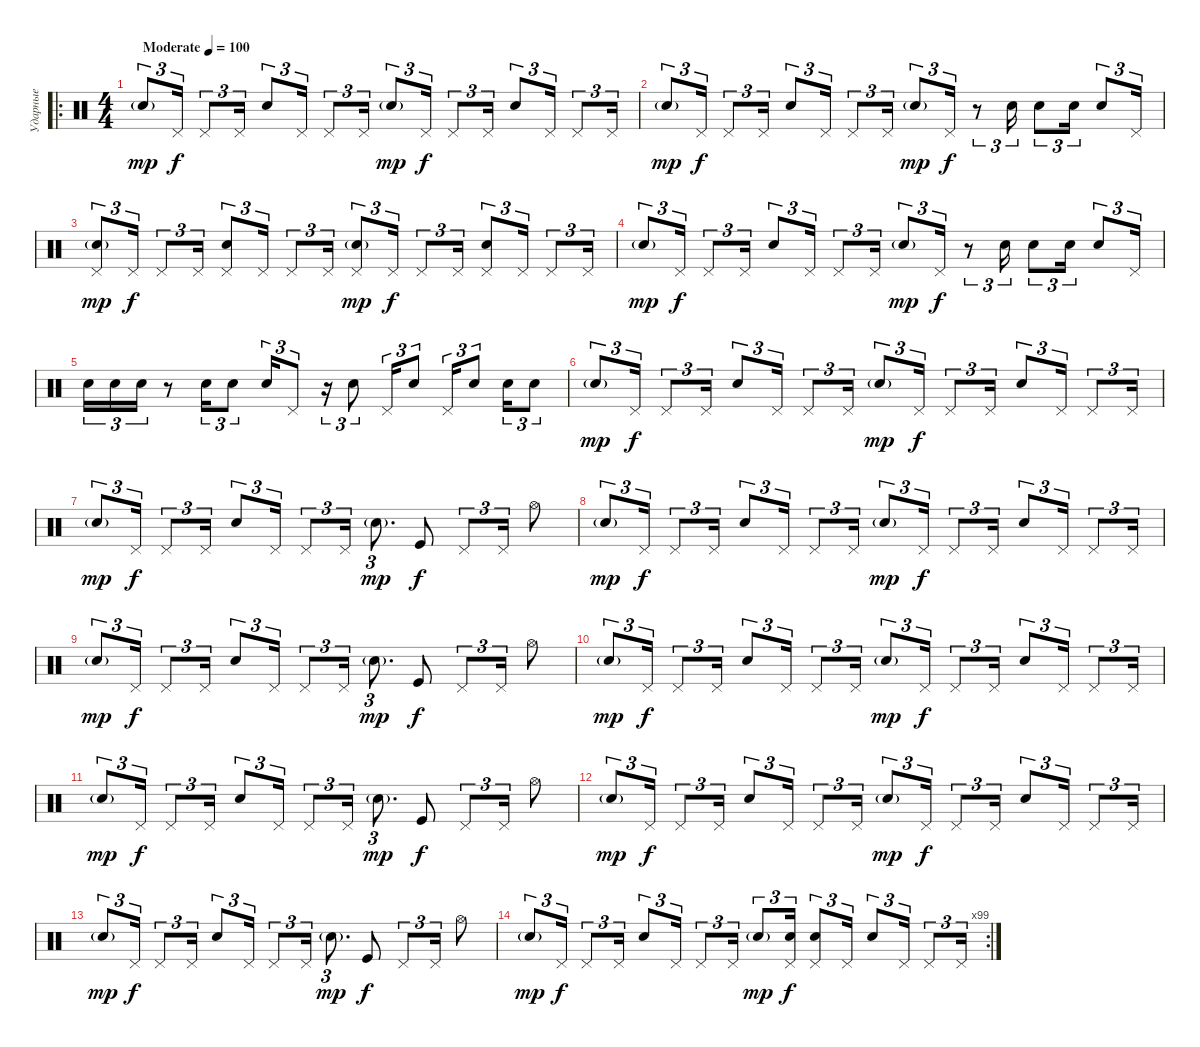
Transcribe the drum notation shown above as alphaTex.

\track ("Ударные" "Ударные") {instrument percussion}
\staff {score}
\articulation defaults
\ro
\ts (4 4)
\tempo (100 "Moderate")
\clef neutral
\ks c "Snare (hit) 2"{g}.8{tu (3 2) dy mp} "Pedal Hi-Hat (hit)".16{tu (3 2) dy f} "Pedal Hi-Hat (hit)".8{tu (3 2)} "Pedal Hi-Hat (hit)".16{tu (3 2)} "Hand Clap (hit)".8{tu (3 2)} "Pedal Hi-Hat (hit)".16{tu (3 2)} "Pedal Hi-Hat (hit)".8{tu (3 2)} "Pedal Hi-Hat (hit)".16{tu (3 2)} "Snare (hit) 2"{g}.8{tu (3 2) dy mp} "Pedal Hi-Hat (hit)".16{tu (3 2) dy f} "Pedal Hi-Hat (hit)".8{tu (3 2)} "Pedal Hi-Hat (hit)".16{tu (3 2)} "Hand Clap (hit)".8{tu (3 2)} "Pedal Hi-Hat (hit)".16{tu (3 2)} "Pedal Hi-Hat (hit)".8{tu (3 2)} "Pedal Hi-Hat (hit)".16{tu (3 2)}
|
"Electric Snare (hit)"{g}.8{tu (3 2) dy mp} "Pedal Hi-Hat (hit)".16{tu (3 2) dy f} "Pedal Hi-Hat (hit)".8{tu (3 2)} "Pedal Hi-Hat (hit)".16{tu (3 2)} "Hand Clap (hit)".8{tu (3 2)} "Pedal Hi-Hat (hit)".16{tu (3 2)} "Pedal Hi-Hat (hit)".8{tu (3 2)} "Pedal Hi-Hat (hit)".16{tu (3 2)} "Snare (hit) 2"{g}.8{tu (3 2) dy mp} "Pedal Hi-Hat (hit)".16{tu (3 2) dy f} r.8{tu (3 2)} "Hand Clap (hit)".16{tu (3 2)} "Hand Clap (hit)".8{tu (3 2)} "Hand Clap (hit)".16{tu (3 2)} "Hand Clap (hit)".8{tu (3 2)} "Pedal Hi-Hat (hit)".16{tu (3 2)} |
("Pedal Hi-Hat (hit)" "Snare (hit) 2"{g}).8{tu (3 2) dy mp} "Pedal Hi-Hat (hit)".16{tu (3 2) dy f} "Pedal Hi-Hat (hit)".8{tu (3 2)} "Pedal Hi-Hat (hit)".16{tu (3 2)} ("Pedal Hi-Hat (hit)" "Hand Clap (hit)").8{tu (3 2)} "Pedal Hi-Hat (hit)".16{tu (3 2)} "Pedal Hi-Hat (hit)".8{tu (3 2)} "Pedal Hi-Hat (hit)".16{tu (3 2)} ("Pedal Hi-Hat (hit)" "Snare (hit) 2"{g}).8{tu (3 2) dy mp} "Pedal Hi-Hat (hit)".16{tu (3 2) dy f} "Pedal Hi-Hat (hit)".8{tu (3 2)} "Pedal Hi-Hat (hit)".16{tu (3 2)} ("Pedal Hi-Hat (hit)" "Hand Clap (hit)").8{tu (3 2)} "Pedal Hi-Hat (hit)".16{tu (3 2)} "Pedal Hi-Hat (hit)".8{tu (3 2)} "Pedal Hi-Hat (hit)".16{tu (3 2)} |
"Electric Snare (hit)"{g}.8{tu (3 2) dy mp} "Pedal Hi-Hat (hit)".16{tu (3 2) dy f} "Pedal Hi-Hat (hit)".8{tu (3 2)} "Pedal Hi-Hat (hit)".16{tu (3 2)} "Hand Clap (hit)".8{tu (3 2)} "Pedal Hi-Hat (hit)".16{tu (3 2)} "Pedal Hi-Hat (hit)".8{tu (3 2)} "Pedal Hi-Hat (hit)".16{tu (3 2)} "Snare (hit) 2"{g}.8{tu (3 2) dy mp} "Pedal Hi-Hat (hit)".16{tu (3 2) dy f} r.8{tu (3 2)} "Hand Clap (hit)".16{tu (3 2)} "Hand Clap (hit)".8{tu (3 2)} "Hand Clap (hit)".16{tu (3 2)} "Hand Clap (hit)".8{tu (3 2)} "Pedal Hi-Hat (hit)".16{tu (3 2)} |
"Snare (hit) 2".16{tu (3 2)} "Snare (hit) 2".16{tu (3 2)} "Snare (hit) 2".16{tu (3 2)} r.8 "Hand Clap (hit)".16{tu (3 2)} "Hand Clap (hit)".8{tu (3 2)} "Hand Clap (hit)".16{tu (3 2)} "Pedal Hi-Hat (hit)".8{tu (3 2)} r.16{tu (3 2)} "Snare (hit) 2".8{tu (3 2)} "Pedal Hi-Hat (hit)".16{tu (3 2)} "Hand Clap (hit)".8{tu (3 2)} "Pedal Hi-Hat (hit)".16{tu (3 2)} "Snare (hit) 2".8{tu (3 2)} "Snare (hit) 2".16{tu (3 2)} "Hand Clap (hit)".8{tu (3 2)} |
"Snare (hit) 2"{g}.8{tu (3 2) dy mp} "Pedal Hi-Hat (hit)".16{tu (3 2) dy f} "Pedal Hi-Hat (hit)".8{tu (3 2)} "Pedal Hi-Hat (hit)".16{tu (3 2)} "Hand Clap (hit)".8{tu (3 2)} "Pedal Hi-Hat (hit)".16{tu (3 2)} "Pedal Hi-Hat (hit)".8{tu (3 2)} "Pedal Hi-Hat (hit)".16{tu (3 2)} "Snare (hit) 2"{g}.8{tu (3 2) dy mp} "Pedal Hi-Hat (hit)".16{tu (3 2) dy f} "Pedal Hi-Hat (hit)".8{tu (3 2)} "Pedal Hi-Hat (hit)".16{tu (3 2)} "Hand Clap (hit)".8{tu (3 2)} "Pedal Hi-Hat (hit)".16{tu (3 2)} "Pedal Hi-Hat (hit)".8{tu (3 2)} "Pedal Hi-Hat (hit)".16{tu (3 2)} |
"Snare (hit) 2"{g}.8{tu (3 2) dy mp} "Pedal Hi-Hat (hit)".16{tu (3 2) dy f} "Pedal Hi-Hat (hit)".8{tu (3 2)} "Pedal Hi-Hat (hit)".16{tu (3 2)} "Hand Clap (hit)".8{tu (3 2)} "Pedal Hi-Hat (hit)".16{tu (3 2)} "Pedal Hi-Hat (hit)".8{tu (3 2)} "Pedal Hi-Hat (hit)".16{tu (3 2)} "Snare (hit) 2"{g}.8{d tu (3 2) dy mp} "Kick (hit)".8{dy f} "Pedal Hi-Hat (hit)".8{tu (3 2)} "Pedal Hi-Hat (hit)".16{tu (3 2)} "Hi-Hat (open)".8 |
"Snare (hit) 2"{g}.8{tu (3 2) dy mp} "Pedal Hi-Hat (hit)".16{tu (3 2) dy f} "Pedal Hi-Hat (hit)".8{tu (3 2)} "Pedal Hi-Hat (hit)".16{tu (3 2)} "Hand Clap (hit)".8{tu (3 2)} "Pedal Hi-Hat (hit)".16{tu (3 2)} "Pedal Hi-Hat (hit)".8{tu (3 2)} "Pedal Hi-Hat (hit)".16{tu (3 2)} "Snare (hit) 2"{g}.8{tu (3 2) dy mp} "Pedal Hi-Hat (hit)".16{tu (3 2) dy f} "Pedal Hi-Hat (hit)".8{tu (3 2)} "Pedal Hi-Hat (hit)".16{tu (3 2)} "Hand Clap (hit)".8{tu (3 2)} "Pedal Hi-Hat (hit)".16{tu (3 2)} "Pedal Hi-Hat (hit)".8{tu (3 2)} "Pedal Hi-Hat (hit)".16{tu (3 2)} |
"Snare (hit) 2"{g}.8{tu (3 2) dy mp} "Pedal Hi-Hat (hit)".16{tu (3 2) dy f} "Pedal Hi-Hat (hit)".8{tu (3 2)} "Pedal Hi-Hat (hit)".16{tu (3 2)} "Hand Clap (hit)".8{tu (3 2)} "Pedal Hi-Hat (hit)".16{tu (3 2)} "Pedal Hi-Hat (hit)".8{tu (3 2)} "Pedal Hi-Hat (hit)".16{tu (3 2)} "Snare (hit) 2"{g}.8{d tu (3 2) dy mp} "Kick (hit)".8{dy f} "Pedal Hi-Hat (hit)".8{tu (3 2)} "Pedal Hi-Hat (hit)".16{tu (3 2)} "Hi-Hat (open)".8 |
"Snare (hit) 2"{g}.8{tu (3 2) dy mp} "Pedal Hi-Hat (hit)".16{tu (3 2) dy f} "Pedal Hi-Hat (hit)".8{tu (3 2)} "Pedal Hi-Hat (hit)".16{tu (3 2)} "Hand Clap (hit)".8{tu (3 2)} "Pedal Hi-Hat (hit)".16{tu (3 2)} "Pedal Hi-Hat (hit)".8{tu (3 2)} "Pedal Hi-Hat (hit)".16{tu (3 2)} "Snare (hit) 2"{g}.8{tu (3 2) dy mp} "Pedal Hi-Hat (hit)".16{tu (3 2) dy f} "Pedal Hi-Hat (hit)".8{tu (3 2)} "Pedal Hi-Hat (hit)".16{tu (3 2)} "Hand Clap (hit)".8{tu (3 2)} "Pedal Hi-Hat (hit)".16{tu (3 2)} "Pedal Hi-Hat (hit)".8{tu (3 2)} "Pedal Hi-Hat (hit)".16{tu (3 2)} |
"Snare (hit) 2"{g}.8{tu (3 2) dy mp} "Pedal Hi-Hat (hit)".16{tu (3 2) dy f} "Pedal Hi-Hat (hit)".8{tu (3 2)} "Pedal Hi-Hat (hit)".16{tu (3 2)} "Hand Clap (hit)".8{tu (3 2)} "Pedal Hi-Hat (hit)".16{tu (3 2)} "Pedal Hi-Hat (hit)".8{tu (3 2)} "Pedal Hi-Hat (hit)".16{tu (3 2)} "Snare (hit) 2"{g}.8{d tu (3 2) dy mp} "Kick (hit)".8{dy f} "Pedal Hi-Hat (hit)".8{tu (3 2)} "Pedal Hi-Hat (hit)".16{tu (3 2)} "Hi-Hat (open)".8 |
"Snare (hit) 2"{g}.8{tu (3 2) dy mp} "Pedal Hi-Hat (hit)".16{tu (3 2) dy f} "Pedal Hi-Hat (hit)".8{tu (3 2)} "Pedal Hi-Hat (hit)".16{tu (3 2)} "Hand Clap (hit)".8{tu (3 2)} "Pedal Hi-Hat (hit)".16{tu (3 2)} "Pedal Hi-Hat (hit)".8{tu (3 2)} "Pedal Hi-Hat (hit)".16{tu (3 2)} "Snare (hit) 2"{g}.8{tu (3 2) dy mp} "Pedal Hi-Hat (hit)".16{tu (3 2) dy f} "Pedal Hi-Hat (hit)".8{tu (3 2)} "Pedal Hi-Hat (hit)".16{tu (3 2)} "Hand Clap (hit)".8{tu (3 2)} "Pedal Hi-Hat (hit)".16{tu (3 2)} "Pedal Hi-Hat (hit)".8{tu (3 2)} "Pedal Hi-Hat (hit)".16{tu (3 2)} |
"Snare (hit) 2"{g}.8{tu (3 2) dy mp} "Pedal Hi-Hat (hit)".16{tu (3 2) dy f} "Pedal Hi-Hat (hit)".8{tu (3 2)} "Pedal Hi-Hat (hit)".16{tu (3 2)} "Hand Clap (hit)".8{tu (3 2)} "Pedal Hi-Hat (hit)".16{tu (3 2)} "Pedal Hi-Hat (hit)".8{tu (3 2)} "Pedal Hi-Hat (hit)".16{tu (3 2)} "Snare (hit) 2"{g}.8{d tu (3 2) dy mp} "Kick (hit)".8{dy f} "Pedal Hi-Hat (hit)".8{tu (3 2)} "Pedal Hi-Hat (hit)".16{tu (3 2)} "Hi-Hat (open)".8 |
\rc 99 "Snare (hit) 2"{g}.8{tu (3 2) dy mp} "Pedal Hi-Hat (hit)".16{tu (3 2) dy f} "Pedal Hi-Hat (hit)".8{tu (3 2)} "Pedal Hi-Hat (hit)".16{tu (3 2)} "Hand Clap (hit)".8{tu (3 2)} "Pedal Hi-Hat (hit)".16{tu (3 2)} "Pedal Hi-Hat (hit)".8{tu (3 2)} "Pedal Hi-Hat (hit)".16{tu (3 2)} "Snare (hit) 2"{g}.8{tu (3 2) dy mp}
("Pedal Hi-Hat (hit)" "Snare (hit) 2").16{tu (3 2) dy f} ("Pedal Hi-Hat (hit)" "Snare (hit) 2").8{tu (3 2)} "Pedal Hi-Hat (hit)".16{tu (3 2)} "Hand Clap (hit)".8{tu (3 2)} "Pedal Hi-Hat (hit)".16{tu (3 2)} "Pedal Hi-Hat (hit)".8{tu (3 2)} "Pedal Hi-Hat (hit)".16{tu (3 2)}
